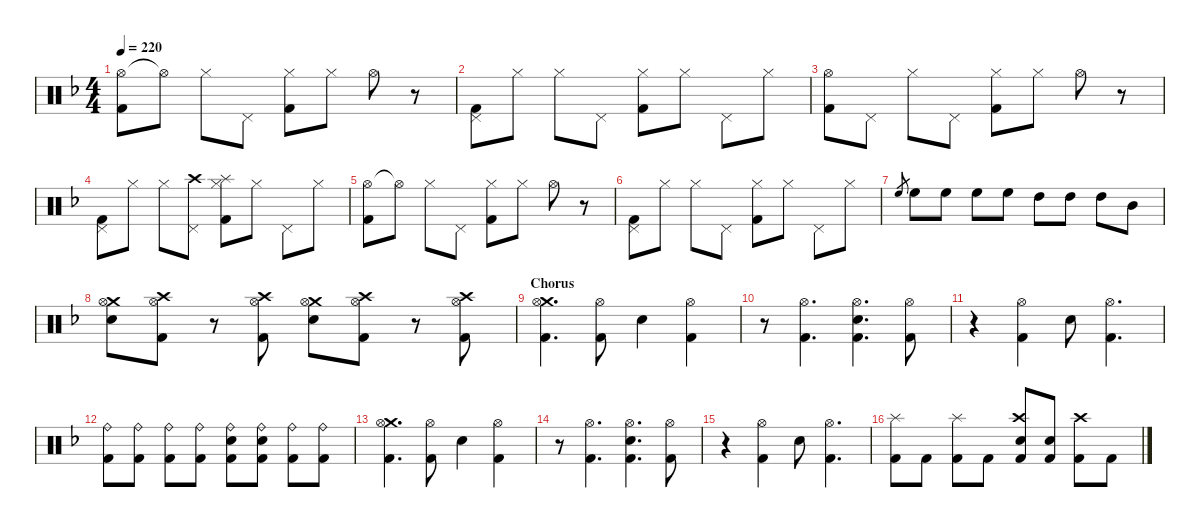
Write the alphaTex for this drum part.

\hideDynamics
\bracketExtendMode nobrackets
\singleTrackTrackNamePolicy hidden
\multiTrackTrackNamePolicy hidden
\firstSystemTrackNameMode fullname
\firstSystemTrackNameOrientation horizontal
\otherSystemsTrackNameOrientation horizontal
\track ("Drumkit" "Drums") {instrument percussion}
\staff {score}
\articulation defaults
\ts (4 4)
\tempo 220
\clef neutral
\ks dminor
("Hi-Hat (open)"{acc forcenatural} "Kick (hit) 2"{acc forcenatural}).8{dy p beam Down} "Hi-Hat (open)"{t acc forcenatural}.8{beam Down} "Hi-Hat (closed)"{acc forcenatural}.8{dy mp beam Down} "Pedal Hi-Hat (hit)"{acc forcenatural}.8{beam Down} ("Hi-Hat (closed)"{acc forcenatural} "Kick (hit) 2"{acc forcenatural}).8{beam Down} "Hi-Hat (closed)"{acc forcenatural}.8{beam Down} "Hi-Hat (open)"{acc forcenatural}.8{beam Down} r.8{beam Down} |
("Pedal Hi-Hat (hit)"{acc forcenatural} "Kick (hit) 2"{acc forcenatural}).8{dy p beam Down} "Hi-Hat (closed)"{acc forcenatural}.8{beam Down} "Hi-Hat (closed)"{acc forcenatural}.8{dy mp beam Down} "Pedal Hi-Hat (hit)"{acc forcenatural}.8{dy mf beam Down} ("Hi-Hat (closed)"{acc forcenatural} "Kick (hit) 2"{acc forcenatural}).8{dy mp beam Down} "Hi-Hat (closed)"{acc forcenatural}.8{beam Down} "Pedal Hi-Hat (hit)"{acc forcenatural}.8{beam Down} "Hi-Hat (closed)"{acc forcenatural}.8{dy p beam Down} |
("Hi-Hat (open)"{acc forcenatural} "Kick (hit) 2"{acc forcenatural}).8{beam Down} "Pedal Hi-Hat (hit)"{acc forcenatural}.8{beam Down} "Hi-Hat (closed)"{acc forcenatural}.8{dy mp beam Down} "Pedal Hi-Hat (hit)"{acc forcenatural}.8{beam Down} ("Hi-Hat (closed)"{acc forcenatural} "Kick (hit) 2"{acc forcenatural}).8{beam Down} "Hi-Hat (closed)"{acc forcenatural}.8{beam Down} "Hi-Hat (open)"{acc forcenatural}.8{beam Down} r.8{beam Down} |
("Pedal Hi-Hat (hit)"{acc forcenatural} "Kick (hit) 2"{acc forcenatural}).8{dy p beam Down} "Hi-Hat (closed)"{acc forcenatural}.8{beam Down} "Hi-Hat (closed)"{acc forcenatural}.8{dy mp beam Down} ("Crash high (hit)"{acc forcenatural} "Pedal Hi-Hat (hit)"{acc forcenatural}).8{beam Down} ("Splash (hit)"{acc forcenatural} "Hi-Hat (closed)"{acc forcenatural} "Kick (hit) 2"{acc forcenatural}).8{beam Down} "Hi-Hat (closed)"{acc forcenatural}.8{beam Down} "Pedal Hi-Hat (hit)"{acc forcenatural}.8{beam Down} "Hi-Hat (closed)"{acc forcenatural}.8{dy p beam Down} |
("Hi-Hat (open)"{acc forcenatural} "Kick (hit) 2"{acc forcenatural}).8{beam Down} "Hi-Hat (open)"{t acc forcenatural}.8{beam Down} "Hi-Hat (closed)"{acc forcenatural}.8{dy mp beam Down} "Pedal Hi-Hat (hit)"{acc forcenatural}.8{beam Down} ("Hi-Hat (closed)"{acc forcenatural} "Kick (hit) 2"{acc forcenatural}).8{beam Down} "Hi-Hat (closed)"{acc forcenatural}.8{beam Down} "Hi-Hat (open)"{acc forcenatural}.8{beam Down} r.8{beam Down} |
("Pedal Hi-Hat (hit)"{acc forcenatural} "Kick (hit) 2"{acc forcenatural}).8{dy p beam Down} "Hi-Hat (closed)"{acc forcenatural}.8{beam Down} "Hi-Hat (closed)"{acc forcenatural}.8{dy mp beam Down} "Pedal Hi-Hat (hit)"{acc forcenatural}.8{dy mf beam Down} ("Hi-Hat (closed)"{acc forcenatural} "Kick (hit) 2"{acc forcenatural}).8{dy mp beam Down} "Hi-Hat (closed)"{acc forcenatural}.8{beam Down} "Pedal Hi-Hat (hit)"{acc forcenatural}.8{beam Down} "Hi-Hat (closed)"{acc forcenatural}.8{dy p beam Down} |
"High Floor Tom (hit)"{acc forcenatural}.8{gr dy mp beam Up} "High Floor Tom (hit)"{acc forcenatural}.8{dy f beam Down} "High Floor Tom (hit)"{acc forcenatural}.8{beam Down} "High Floor Tom (hit)"{acc forcenatural}.8{beam Down} "High Floor Tom (hit)"{acc forcenatural}.8{beam Down} "High Tom (hit)"{acc forcenatural}.8{beam Down} "High Tom (hit)"{acc forcenatural}.8{beam Down} "High Tom (hit)"{acc forcenatural}.8{beam Down} "Mid Tom (hit)"{acc forcenatural}.8{beam Down} |
("Crash medium (hit)"{acc forcenatural} "Hi-Hat (open)"{acc forcenatural} "Snare (hit) 2"{acc forcenatural}).8{beam Down} ("Crash high (hit)"{acc forcenatural} "Hi-Hat (open)"{acc forcenatural} "Kick (hit) 2"{acc forcenatural}).8{beam Down} r.8{beam Down} ("Crash high (hit)"{acc forcenatural} "Hi-Hat (open)"{acc forcenatural} "Kick (hit) 2"{acc forcenatural}).8{beam Down} ("Crash medium (hit)"{acc forcenatural} "Hi-Hat (open)"{acc forcenatural} "Snare (hit) 2"{acc forcenatural}).8{beam Down} ("Crash high (hit)"{acc forcenatural} "Hi-Hat (open)"{acc forcenatural} "Kick (hit) 2"{acc forcenatural}).8{beam Down} r.8{beam Down} ("Crash high (hit)"{acc forcenatural} "Hi-Hat (open)"{acc forcenatural} "Kick (hit) 2"{acc forcenatural}).8{beam Down} |
\section ("" "Chorus")
("Crash medium (hit)"{acc forcenatural} "Hi-Hat (open)"{acc forcenatural} "Kick (hit) 2"{acc forcenatural}).4{d beam Down} ("Hi-Hat (open)"{acc forcenatural} "Kick (hit) 2"{acc forcenatural}).8{beam Down} "Snare (hit) 2"{acc forcenatural}.4{beam Down} ("Hi-Hat (open)"{acc forcenatural} "Kick (hit) 2"{acc forcenatural}).4{beam Down} |
r.8{beam Down} ("Hi-Hat (open)"{acc forcenatural} "Kick (hit) 2"{acc forcenatural}).4{d beam Down} ("Hi-Hat (open)"{acc forcenatural} "Snare (hit) 2"{acc forcenatural} "Kick (hit) 2"{acc forcenatural}).4{d beam Down} ("Hi-Hat (open)"{acc forcenatural} "Kick (hit) 2"{acc forcenatural}).8{beam Down} |
r.4{beam Down} ("Hi-Hat (open)"{acc forcenatural} "Kick (hit) 2"{acc forcenatural}).4{beam Down} "Snare (hit) 2"{acc forcenatural}.8{beam Down} ("Hi-Hat (open)"{acc forcenatural} "Kick (hit) 2"{acc forcenatural}).4{d beam Down} |
("Ride (bell)"{acc forcenatural} "Kick (hit) 2"{acc forcenatural}).8{beam Down} ("Ride (bell)"{acc forcenatural} "Kick (hit) 2"{acc forcenatural}).8{beam Down} ("Ride (bell)"{acc forcenatural} "Kick (hit) 2"{acc forcenatural}).8{dy mp beam Down} ("Ride (bell)"{acc forcenatural} "Kick (hit) 2"{acc forcenatural}).8{beam Down} ("Ride (bell)"{acc forcenatural} "Snare (hit) 2"{acc forcenatural} "Kick (hit) 2"{acc forcenatural}).8{dy f beam Down} ("Ride (bell)"{acc forcenatural} "Snare (hit) 2"{acc forcenatural} "Kick (hit) 2"{acc forcenatural}).8{beam Down} ("Ride (bell)"{acc forcenatural} "Kick (hit) 2"{acc forcenatural}).8{dy mp beam Down} ("Ride (bell)"{acc forcenatural} "Kick (hit) 2"{acc forcenatural}).8{beam Down} |
("Crash medium (hit)"{acc forcenatural} "Hi-Hat (open)"{acc forcenatural} "Kick (hit) 2"{acc forcenatural}).4{d dy f beam Down} ("Hi-Hat (open)"{acc forcenatural} "Kick (hit) 2"{acc forcenatural}).8{beam Down} "Snare (hit) 2"{acc forcenatural}.4{beam Down} ("Hi-Hat (open)"{acc forcenatural} "Kick (hit) 2"{acc forcenatural}).4{beam Down} |
r.8{beam Down} ("Hi-Hat (open)"{acc forcenatural} "Kick (hit) 2"{acc forcenatural}).4{d beam Down} ("Hi-Hat (open)"{acc forcenatural} "Snare (hit) 2"{acc forcenatural} "Kick (hit) 2"{acc forcenatural}).4{d beam Down} ("Hi-Hat (open)"{acc forcenatural} "Kick (hit) 2"{acc forcenatural}).8{beam Down} |
r.4{beam Down} ("Hi-Hat (open)"{acc forcenatural} "Kick (hit) 2"{acc forcenatural}).4{beam Down} "Snare (hit) 2"{acc forcenatural}.8{beam Down} ("Hi-Hat (open)"{acc forcenatural} "Kick (hit) 2"{acc forcenatural}).4{d beam Down} |
("Splash (hit)"{acc forcenatural} "Kick (hit) 2"{acc forcenatural}).8{beam Down} "Kick (hit) 2"{acc forcenatural}.8{beam Down} ("Splash (hit)"{acc forcenatural} "Kick (hit) 2"{acc forcenatural}).8{beam Down} "Kick (hit) 2"{acc forcenatural}.8{beam Down} ("Crash high (hit)"{acc forcenatural} "Snare (hit) 2"{acc forcenatural} "Kick (hit) 2"{acc forcenatural}).8{beam Up} ("Snare (hit) 2"{acc forcenatural} "Kick (hit) 2"{acc forcenatural}).8{beam Up} ("Crash high (hit)"{acc forcenatural} "Kick (hit) 2"{acc forcenatural}).8{beam Down} "Kick (hit) 2"{acc forcenatural}.8{beam Down}
